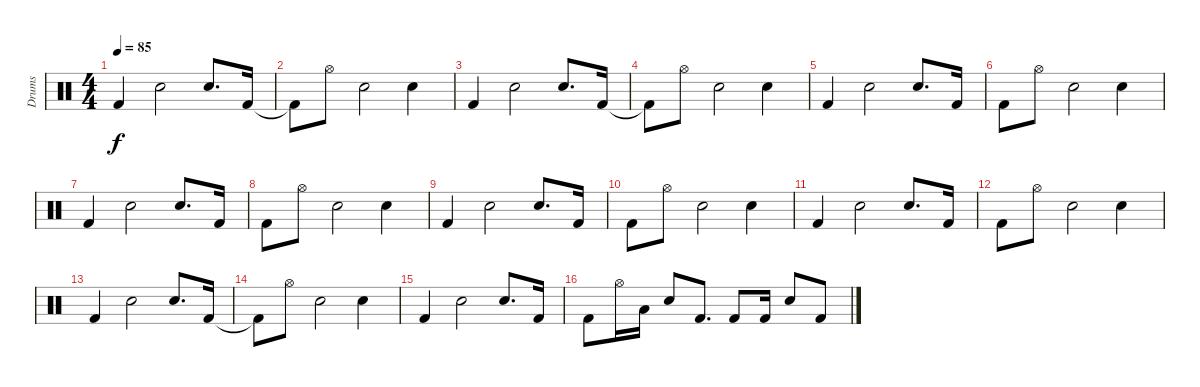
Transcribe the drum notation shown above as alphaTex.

\track ("Drums" "Drums") {instrument percussion}
\staff {score}
\articulation defaults
\ts (4 4)
\tempo 85
\clef neutral
\ks c "Kick (hit) 2".4{dy f} "Snare (hit) 2".2 "Snare (hit) 2".8{d} "Kick (hit) 2".16
|
"Kick (hit) 2"{t}.8 "Hi-Hat (open)".8 "Snare (hit) 2".2 "Snare (hit) 2".4 |
"Kick (hit) 2".4 "Snare (hit) 2".2 "Snare (hit) 2".8{d} "Kick (hit) 2".16 |
"Kick (hit) 2"{t}.8 "Hi-Hat (open)".8 "Snare (hit) 2".2 "Snare (hit) 2".4 |
"Kick (hit) 2".4 "Snare (hit) 2".2 "Snare (hit) 2".8{d} "Kick (hit) 2".16 |
"Kick (hit) 2".8 "Hi-Hat (open)".8 "Snare (hit) 2".2 "Snare (hit) 2".4 |
"Kick (hit) 2".4 "Snare (hit) 2".2 "Snare (hit) 2".8{d} "Kick (hit) 2".16 |
"Kick (hit) 2".8 "Hi-Hat (open)".8 "Snare (hit) 2".2 "Snare (hit) 2".4 |
"Kick (hit) 2".4 "Snare (hit) 2".2 "Snare (hit) 2".8{d} "Kick (hit) 2".16 |
"Kick (hit) 2".8 "Hi-Hat (open)".8 "Snare (hit) 2".2 "Snare (hit) 2".4 |
"Kick (hit) 2".4 "Snare (hit) 2".2 "Snare (hit) 2".8{d} "Kick (hit) 2".16 |
"Kick (hit) 2".8 "Hi-Hat (open)".8 "Snare (hit) 2".2 "Snare (hit) 2".4 |
"Kick (hit) 2".4 "Snare (hit) 2".2 "Snare (hit) 2".8{d} "Kick (hit) 2".16 |
"Kick (hit) 2"{t}.8 "Hi-Hat (open)".8 "Snare (hit) 2".2 "Snare (hit) 2".4 |
"Kick (hit) 2".4 "Snare (hit) 2".2 "Snare (hit) 2".8{d} "Kick (hit) 2".16 |
"Kick (hit) 2".8 "Hi-Hat (open)".16 "Low Tom (hit)".16 "Snare (hit) 2".8 "Kick (hit) 2".8{d} "Kick (hit) 2".8 "Kick (hit) 2".16 "Snare (hit) 2".8 "Kick (hit) 2".8
